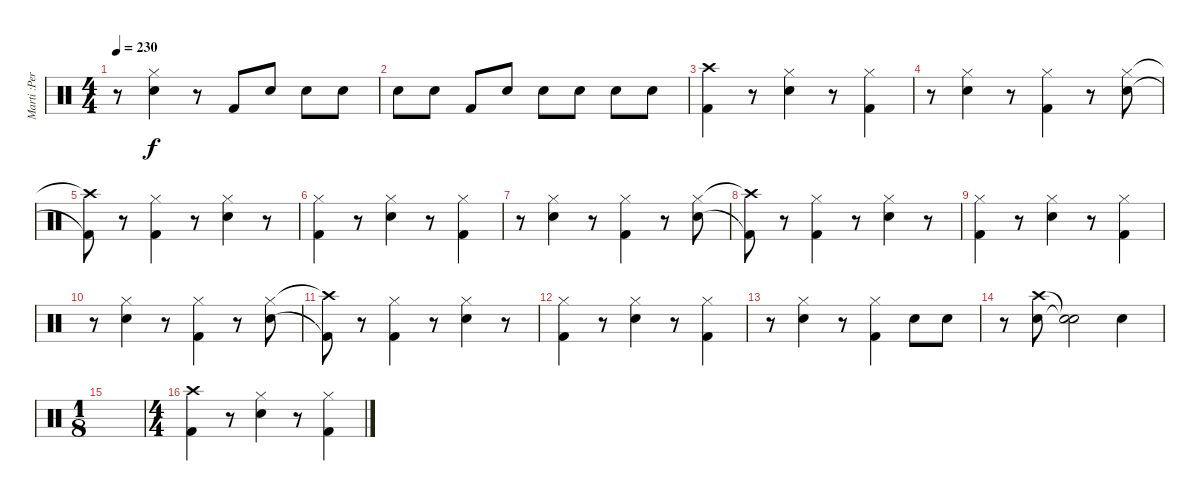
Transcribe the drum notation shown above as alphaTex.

\track ("Marti :Percussion" "Marti :Per") {instrument percussion}
\staff {score}
\articulation defaults
\ts (4 4)
\tempo 230
\clef neutral
\ks c
r.8{dy f} ("Hi-Hat (closed)" "Snare (hit) 2").4 r.8 "Kick (hit) 2".8 "Snare (hit) 2".8 "Snare (hit) 2".8 "Snare (hit) 2".8 |
"Snare (hit) 2".8 "Snare (hit) 2".8 "Kick (hit) 2".8 "Snare (hit) 2".8 "Snare (hit) 2".8 "Snare (hit) 2".8 "Snare (hit) 2".8 "Snare (hit) 2".8 |
("Crash high (hit)" "Kick (hit) 2").4 r.8 ("Hi-Hat (closed)" "Snare (hit) 2").4 r.8 ("Hi-Hat (closed)" "Kick (hit) 2").4 |
r.8 ("Hi-Hat (closed)" "Snare (hit) 2").4 r.8 ("Hi-Hat (closed)" "Kick (hit) 2").4 r.8 ("Hi-Hat (closed)" "Snare (hit) 2").8 |
("Crash high (hit)"{t} "Kick (hit) 2"{t}).8 r.8 ("Hi-Hat (closed)" "Kick (hit) 2").4 r.8 ("Hi-Hat (closed)" "Snare (hit) 2").4 r.8 |
("Hi-Hat (closed)" "Kick (hit) 2").4 r.8 ("Hi-Hat (closed)" "Snare (hit) 2").4 r.8 ("Hi-Hat (closed)" "Kick (hit) 2").4 |
r.8 ("Hi-Hat (closed)" "Snare (hit) 2").4 r.8 ("Hi-Hat (closed)" "Kick (hit) 2").4 r.8 ("Hi-Hat (closed)" "Snare (hit) 2").8 |
("Crash high (hit)"{t} "Kick (hit) 2"{t}).8 r.8 ("Hi-Hat (closed)" "Kick (hit) 2").4 r.8 ("Hi-Hat (closed)" "Snare (hit) 2").4 r.8 |
("Hi-Hat (closed)" "Kick (hit) 2").4 r.8 ("Hi-Hat (closed)" "Snare (hit) 2").4 r.8 ("Hi-Hat (closed)" "Kick (hit) 2").4 |
r.8 ("Hi-Hat (closed)" "Snare (hit) 2").4 r.8 ("Hi-Hat (closed)" "Kick (hit) 2").4 r.8 ("Hi-Hat (closed)" "Snare (hit) 2").8 |
("Crash high (hit)"{t} "Kick (hit) 2"{t}).8 r.8 ("Hi-Hat (closed)" "Kick (hit) 2").4 r.8 ("Hi-Hat (closed)" "Snare (hit) 2").4 r.8 |
("Hi-Hat (closed)" "Kick (hit) 2").4 r.8 ("Hi-Hat (closed)" "Snare (hit) 2").4 r.8 ("Hi-Hat (closed)" "Kick (hit) 2").4 |
r.8 ("Hi-Hat (closed)" "Snare (hit) 2").4 r.8 ("Hi-Hat (closed)" "Kick (hit) 2").4 "Snare (hit) 2".8 "Snare (hit) 2".8 |
r.8 ("Crash high (hit)" "Snare (hit) 2").8 ("Snare (hit)"{t} "Snare (hit)"{t}).2 "Snare (hit) 2".4 |
\ts (1 8)
|
\ts (4 4)
("Crash high (hit)" "Kick (hit) 2").4 r.8 ("Hi-Hat (closed)" "Snare (hit) 2").4 r.8 ("Hi-Hat (closed)" "Kick (hit) 2").4
